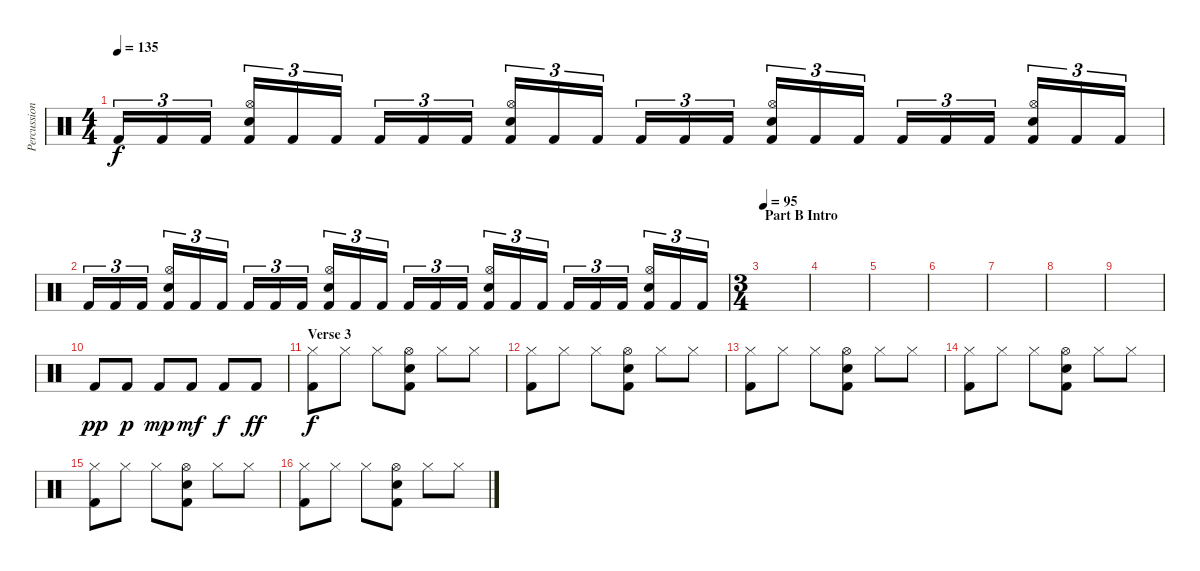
\track ("Percussion" "Percussion") {instrument percussion}
\staff {score}
\articulation defaults
\ts (4 4)
\tempo 135
\clef neutral
\ks c "Kick (hit) 2".16{tu (3 2) dy f} "Kick (hit) 2".16{tu (3 2)} "Kick (hit) 2".16{tu (3 2)}
("Hi-Hat (open)" "Snare (hit) 2" "Kick (hit) 2").16{tu (3 2)} "Kick (hit) 2".16{tu (3 2)} "Kick (hit) 2".16{tu (3 2)} "Kick (hit) 2".16{tu (3 2)} "Kick (hit) 2".16{tu (3 2)} "Kick (hit) 2".16{tu (3 2)} ("Hi-Hat (open)" "Snare (hit) 2" "Kick (hit) 2").16{tu (3 2)} "Kick (hit) 2".16{tu (3 2)} "Kick (hit) 2".16{tu (3 2)} "Kick (hit) 2".16{tu (3 2)} "Kick (hit) 2".16{tu (3 2)} "Kick (hit) 2".16{tu (3 2)} ("Hi-Hat (open)" "Snare (hit) 2" "Kick (hit) 2").16{tu (3 2)} "Kick (hit) 2".16{tu (3 2)} "Kick (hit) 2".16{tu (3 2)} "Kick (hit) 2".16{tu (3 2)} "Kick (hit) 2".16{tu (3 2)} "Kick (hit) 2".16{tu (3 2)} ("Hi-Hat (open)" "Snare (hit) 2" "Kick (hit) 2").16{tu (3 2)} "Kick (hit) 2".16{tu (3 2)} "Kick (hit) 2".16{tu (3 2)} |
"Kick (hit) 2".16{tu (3 2)} "Kick (hit) 2".16{tu (3 2)} "Kick (hit) 2".16{tu (3 2)} ("Hi-Hat (open)" "Snare (hit) 2" "Kick (hit) 2").16{tu (3 2)} "Kick (hit) 2".16{tu (3 2)} "Kick (hit) 2".16{tu (3 2)} "Kick (hit) 2".16{tu (3 2)} "Kick (hit) 2".16{tu (3 2)} "Kick (hit) 2".16{tu (3 2)} ("Hi-Hat (open)" "Snare (hit) 2" "Kick (hit) 2").16{tu (3 2)} "Kick (hit) 2".16{tu (3 2)} "Kick (hit) 2".16{tu (3 2)} "Kick (hit) 2".16{tu (3 2)} "Kick (hit) 2".16{tu (3 2)} "Kick (hit) 2".16{tu (3 2)} ("Hi-Hat (open)" "Snare (hit) 2" "Kick (hit) 2").16{tu (3 2)} "Kick (hit) 2".16{tu (3 2)} "Kick (hit) 2".16{tu (3 2)} "Kick (hit) 2".16{tu (3 2)} "Kick (hit) 2".16{tu (3 2)} "Kick (hit) 2".16{tu (3 2)} ("Hi-Hat (open)" "Snare (hit) 2" "Kick (hit) 2").16{tu (3 2)} "Kick (hit) 2".16{tu (3 2)} "Kick (hit) 2".16{tu (3 2)} |
\ts (3 4)
\section ("" "Part B Intro")
\tempo 95
|
|
|
|
|
|
|
"Kick (hit) 2".8{dy pp volume 16} "Kick (hit) 2".8{dy p} "Kick (hit) 2".8{dy mp} "Kick (hit) 2".8{dy mf} "Kick (hit) 2".8{dy f} "Kick (hit) 2".8{dy ff} |
\section ("" "Verse 3")
("Hi-Hat (closed)" "Kick (hit) 2").8{dy f} "Hi-Hat (closed)".8 "Hi-Hat (closed)".8 ("Hi-Hat (open)" "Snare (hit) 2" "Kick (hit) 2").8 "Hi-Hat (closed)".8 "Hi-Hat (closed)".8 |
("Hi-Hat (closed)" "Kick (hit) 2").8 "Hi-Hat (closed)".8 "Hi-Hat (closed)".8 ("Hi-Hat (open)" "Snare (hit) 2" "Kick (hit) 2").8 "Hi-Hat (closed)".8 "Hi-Hat (closed)".8 |
("Hi-Hat (closed)" "Kick (hit) 2").8 "Hi-Hat (closed)".8 "Hi-Hat (closed)".8 ("Hi-Hat (open)" "Snare (hit) 2" "Kick (hit) 2").8 "Hi-Hat (closed)".8 "Hi-Hat (closed)".8 |
("Hi-Hat (closed)" "Kick (hit) 2").8 "Hi-Hat (closed)".8 "Hi-Hat (closed)".8 ("Hi-Hat (open)" "Snare (hit) 2" "Kick (hit) 2").8 "Hi-Hat (closed)".8 "Hi-Hat (closed)".8 |
("Hi-Hat (closed)" "Kick (hit) 2").8 "Hi-Hat (closed)".8 "Hi-Hat (closed)".8 ("Hi-Hat (open)" "Snare (hit) 2" "Kick (hit) 2").8 "Hi-Hat (closed)".8 "Hi-Hat (closed)".8 |
("Hi-Hat (closed)" "Kick (hit) 2").8 "Hi-Hat (closed)".8 "Hi-Hat (closed)".8 ("Hi-Hat (open)" "Snare (hit) 2" "Kick (hit) 2").8 "Hi-Hat (closed)".8 "Hi-Hat (closed)".8
